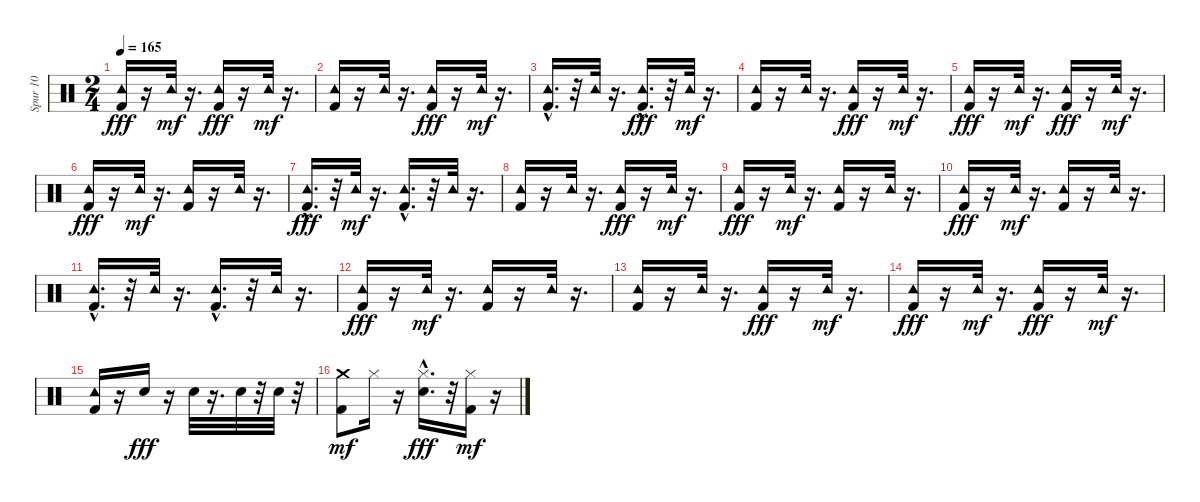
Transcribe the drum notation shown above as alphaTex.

\track ("Spur 10" "Spur 10") {instrument percussion}
\staff {score}
\articulation defaults
\ts (2 4)
\tempo 165
\clef neutral
\ks c
("Tambourine (hit)" "Kick (hit) 2").16{dy fff} r.16 "Tambourine (hit)".32{dy mf} r.16{d} ("Tambourine (hit)" "Kick (hit) 2").16{dy fff} r.16 "Tambourine (hit)".32{dy mf} r.16{d} |
("Kick (hit) 2" "Tambourine (hit)").16 r.16 "Tambourine (hit)".32 r.16{d} ("Tambourine (hit)" "Kick (hit) 2").16{dy fff} r.16 "Tambourine (hit)".32{dy mf} r.16{d} |
("Kick (hit) 2"{hac} "Tambourine (hit)").16{d} r.32 "Tambourine (hit)".32 r.16{d} ("Tambourine (hit)" "Kick (hit) 2"{hac}).16{d dy fff} r.32 "Tambourine (hit)".32{dy mf} r.16{d} |
("Kick (hit) 2" "Tambourine (hit)").16 r.16 "Tambourine (hit)".32 r.16{d} ("Tambourine (hit)" "Kick (hit) 2").16{dy fff} r.16 "Tambourine (hit)".32{dy mf} r.16{d} |
("Tambourine (hit)" "Kick (hit) 2").16{dy fff} r.16 "Tambourine (hit)".32{dy mf} r.16{d} ("Tambourine (hit)" "Kick (hit) 2").16{dy fff} r.16 "Tambourine (hit)".32{dy mf} r.16{d} |
("Tambourine (hit)" "Kick (hit) 2").16{dy fff} r.16 "Tambourine (hit)".32{dy mf} r.16{d} ("Kick (hit) 2" "Tambourine (hit)").16 r.16 "Tambourine (hit)".32 r.16{d} |
("Tambourine (hit)" "Kick (hit) 2"{hac}).16{d dy fff} r.32 "Tambourine (hit)".32{dy mf} r.16{d} ("Kick (hit) 2"{hac} "Tambourine (hit)").16{d} r.32 "Tambourine (hit)".32 r.16{d} |
("Kick (hit) 2" "Tambourine (hit)").16 r.16 "Tambourine (hit)".32 r.16{d} ("Tambourine (hit)" "Kick (hit) 2").16{dy fff} r.16 "Tambourine (hit)".32{dy mf} r.16{d} |
("Tambourine (hit)" "Kick (hit) 2").16{dy fff} r.16 "Tambourine (hit)".32{dy mf} r.16{d} ("Kick (hit) 2" "Tambourine (hit)").16 r.16 "Tambourine (hit)".32 r.16{d} |
("Tambourine (hit)" "Kick (hit) 2").16{dy fff} r.16 "Tambourine (hit)".32{dy mf} r.16{d} ("Kick (hit) 2" "Tambourine (hit)").16 r.16 "Tambourine (hit)".32 r.16{d} |
("Kick (hit) 2"{hac} "Tambourine (hit)").16{d} r.32 "Tambourine (hit)".32 r.16{d} ("Kick (hit) 2"{hac} "Tambourine (hit)").16{d} r.32 "Tambourine (hit)".32 r.16{d} |
("Tambourine (hit)" "Kick (hit) 2").16{dy fff} r.16 "Tambourine (hit)".32{dy mf} r.16{d} ("Kick (hit) 2" "Tambourine (hit)").16 r.16 "Tambourine (hit)".32 r.16{d} |
("Kick (hit) 2" "Tambourine (hit)").16 r.16 "Tambourine (hit)".32 r.16{d} ("Tambourine (hit)" "Kick (hit) 2").16{dy fff} r.16 "Tambourine (hit)".32{dy mf} r.16{d} |
("Tambourine (hit)" "Kick (hit) 2").16{dy fff} r.16 "Tambourine (hit)".32{dy mf} r.16{d} ("Tambourine (hit)" "Kick (hit) 2").16{dy fff} r.16 "Tambourine (hit)".32{dy mf} r.16{d} |
("Kick (hit) 2" "Tambourine (hit)").16 r.16 "Electric Snare (hit)".16{dy fff} r.16 "Electric Snare (hit)".32 r.16{d} "Electric Snare (hit)".32 r.32 "Electric Snare (hit)".32 r.32 |
("Kick (hit) 2" "Crash medium (hit)").8{dy mf} "Hi-Hat (closed)".16 r.16 ("Hi-Hat (closed)" "Electric Snare (hit)"{hac}).16{d dy fff} r.32 ("Kick (hit) 2" "Hi-Hat (closed)").16{dy mf} r.16
